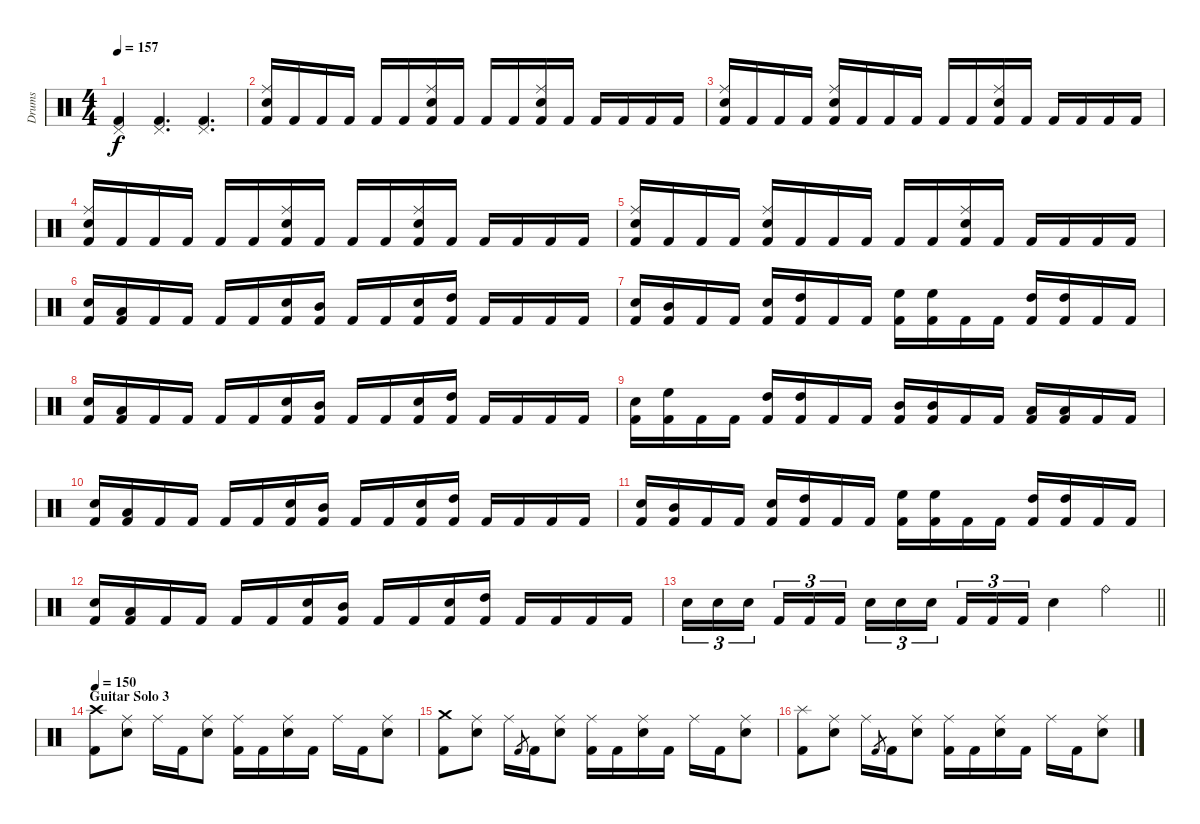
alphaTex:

\track ("Drums" "Drums") {instrument percussion}
\staff {score}
\articulation defaults
\ts (4 4)
\tempo 157
\clef neutral
\ks c
("Pedal Hi-Hat (hit)" "Kick (hit) 2").4{dy f} ("Pedal Hi-Hat (hit)" "Kick (hit) 2").4{d} ("Pedal Hi-Hat (hit)" "Kick (hit) 2").4{d} |
("Ride (middle)" "Electric Snare (hit)" "Kick (hit) 2").16 "Kick (hit) 2".16 "Kick (hit) 2".16 "Kick (hit) 2".16 "Kick (hit) 2".16 "Kick (hit) 2".16 ("Ride (middle)" "Electric Snare (hit)" "Kick (hit) 2").16 "Kick (hit) 2".16 "Kick (hit) 2".16 "Kick (hit) 2".16 ("Ride (middle)" "Electric Snare (hit)" "Kick (hit) 2").16 "Kick (hit) 2".16 "Kick (hit) 2".16 "Kick (hit) 2".16 "Kick (hit) 2".16 "Kick (hit) 2".16 |
("Ride (middle)" "Electric Snare (hit)" "Kick (hit) 2").16 "Kick (hit) 2".16 "Kick (hit) 2".16 "Kick (hit) 2".16 ("Ride (middle)" "Electric Snare (hit)" "Kick (hit) 2").16 "Kick (hit) 2".16 "Kick (hit) 2".16 "Kick (hit) 2".16 "Kick (hit) 2".16 "Kick (hit) 2".16 ("Ride (middle)" "Electric Snare (hit)" "Kick (hit) 2").16 "Kick (hit) 2".16 "Kick (hit) 2".16 "Kick (hit) 2".16 "Kick (hit) 2".16 "Kick (hit) 2".16 |
("Ride (middle)" "Electric Snare (hit)" "Kick (hit) 2").16 "Kick (hit) 2".16 "Kick (hit) 2".16 "Kick (hit) 2".16 "Kick (hit) 2".16 "Kick (hit) 2".16 ("Ride (middle)" "Electric Snare (hit)" "Kick (hit) 2").16 "Kick (hit) 2".16 "Kick (hit) 2".16 "Kick (hit) 2".16 ("Ride (middle)" "Electric Snare (hit)" "Kick (hit) 2").16 "Kick (hit) 2".16 "Kick (hit) 2".16 "Kick (hit) 2".16 "Kick (hit) 2".16 "Kick (hit) 2".16 |
("Ride (middle)" "Electric Snare (hit)" "Kick (hit) 2").16 "Kick (hit) 2".16 "Kick (hit) 2".16 "Kick (hit) 2".16 ("Ride (middle)" "Electric Snare (hit)" "Kick (hit) 2").16 "Kick (hit) 2".16 "Kick (hit) 2".16 "Kick (hit) 2".16 "Kick (hit) 2".16 "Kick (hit) 2".16 ("Ride (middle)" "Electric Snare (hit)" "Kick (hit) 2").16 "Kick (hit) 2".16 "Kick (hit) 2".16 "Kick (hit) 2".16 "Kick (hit) 2".16 "Kick (hit) 2".16 |
("Electric Snare (hit)" "Kick (hit) 2").16 ("Low Tom (hit)" "Kick (hit) 2").16 "Kick (hit) 2".16 "Kick (hit) 2".16 "Kick (hit) 2".16 "Kick (hit) 2".16 ("Electric Snare (hit)" "Kick (hit) 2").16 ("Mid Tom (hit)" "Kick (hit) 2").16 "Kick (hit) 2".16 "Kick (hit) 2".16 ("Electric Snare (hit)" "Kick (hit) 2").16 ("High Tom (hit)" "Kick (hit) 2").16 "Kick (hit) 2".16 "Kick (hit) 2".16 "Kick (hit) 2".16 "Kick (hit) 2".16 |
("Electric Snare (hit)" "Kick (hit) 2").16 ("Mid Tom (hit)" "Kick (hit) 2").16 "Kick (hit) 2".16 "Kick (hit) 2".16 ("Electric Snare (hit)" "Kick (hit) 2").16 ("High Tom (hit)" "Kick (hit) 2").16 "Kick (hit) 2".16 "Kick (hit) 2".16 ("High Floor Tom (hit)" "Kick (hit) 2").16 ("High Floor Tom (hit)" "Kick (hit) 2").16 "Kick (hit) 2".16 "Kick (hit) 2".16 ("High Tom (hit)" "Kick (hit) 2").16 ("High Tom (hit)" "Kick (hit) 2").16 "Kick (hit) 2".16 "Kick (hit) 2".16 |
("Electric Snare (hit)" "Kick (hit) 2").16 ("Low Tom (hit)" "Kick (hit) 2").16 "Kick (hit) 2".16 "Kick (hit) 2".16 "Kick (hit) 2".16 "Kick (hit) 2".16 ("Electric Snare (hit)" "Kick (hit) 2").16 ("Mid Tom (hit)" "Kick (hit) 2").16 "Kick (hit) 2".16 "Kick (hit) 2".16 ("Electric Snare (hit)" "Kick (hit) 2").16 ("High Tom (hit)" "Kick (hit) 2").16 "Kick (hit) 2".16 "Kick (hit) 2".16 "Kick (hit) 2".16 "Kick (hit) 2".16 |
("Electric Snare (hit)" "Kick (hit) 2").16 ("High Floor Tom (hit)" "Kick (hit) 2").16 "Kick (hit) 2".16 "Kick (hit) 2".16 ("High Tom (hit)" "Kick (hit) 2").16 ("High Tom (hit)" "Kick (hit) 2").16 "Kick (hit) 2".16 "Kick (hit) 2".16 ("Mid Tom (hit)" "Kick (hit) 2").16 ("Mid Tom (hit)" "Kick (hit) 2").16 "Kick (hit) 2".16 "Kick (hit) 2".16 ("Low Tom (hit)" "Kick (hit) 2").16 ("Low Tom (hit)" "Kick (hit) 2").16 "Kick (hit) 2".16 "Kick (hit) 2".16 |
("Electric Snare (hit)" "Kick (hit) 2").16 ("Low Tom (hit)" "Kick (hit) 2").16 "Kick (hit) 2".16 "Kick (hit) 2".16 "Kick (hit) 2".16 "Kick (hit) 2".16 ("Electric Snare (hit)" "Kick (hit) 2").16 ("Mid Tom (hit)" "Kick (hit) 2").16 "Kick (hit) 2".16 "Kick (hit) 2".16 ("Electric Snare (hit)" "Kick (hit) 2").16 ("High Tom (hit)" "Kick (hit) 2").16 "Kick (hit) 2".16 "Kick (hit) 2".16 "Kick (hit) 2".16 "Kick (hit) 2".16 |
("Electric Snare (hit)" "Kick (hit) 2").16 ("Mid Tom (hit)" "Kick (hit) 2").16 "Kick (hit) 2".16 "Kick (hit) 2".16 ("Electric Snare (hit)" "Kick (hit) 2").16 ("High Tom (hit)" "Kick (hit) 2").16 "Kick (hit) 2".16 "Kick (hit) 2".16 ("High Floor Tom (hit)" "Kick (hit) 2").16 ("High Floor Tom (hit)" "Kick (hit) 2").16 "Kick (hit) 2".16 "Kick (hit) 2".16 ("High Tom (hit)" "Kick (hit) 2").16 ("High Tom (hit)" "Kick (hit) 2").16 "Kick (hit) 2".16 "Kick (hit) 2".16 |
("Electric Snare (hit)" "Kick (hit) 2").16 ("Low Tom (hit)" "Kick (hit) 2").16 "Kick (hit) 2".16 "Kick (hit) 2".16 "Kick (hit) 2".16 "Kick (hit) 2".16 ("Electric Snare (hit)" "Kick (hit) 2").16 ("Mid Tom (hit)" "Kick (hit) 2").16 "Kick (hit) 2".16 "Kick (hit) 2".16 ("Electric Snare (hit)" "Kick (hit) 2").16 ("High Tom (hit)" "Kick (hit) 2").16 "Kick (hit) 2".16 "Kick (hit) 2".16 "Kick (hit) 2".16 "Kick (hit) 2".16 |
\barLineRight lightlight "Electric Snare (hit)".16{tu (3 2)} "Electric Snare (hit)".16{tu (3 2)} "Electric Snare (hit)".16{tu (3 2) beam splitsecondary} "Kick (hit) 2".16{tu (3 2)} "Kick (hit) 2".16{tu (3 2)} "Kick (hit) 2".16{tu (3 2)} "Electric Snare (hit)".16{tu (3 2)} "Electric Snare (hit)".16{tu (3 2)} "Electric Snare (hit)".16{tu (3 2) beam splitsecondary} "Kick (hit) 2".16{tu (3 2)} "Kick (hit) 2".16{tu (3 2)} "Kick (hit) 2".16{tu (3 2)} "Electric Snare (hit)".4 "Ride (bell)".4
|
\section ("" "Guitar Solo 3")
\tempo 150
("Crash high (hit)" "Kick (hit) 2").8 ("Ride (middle)" "Electric Snare (hit)").8 "Ride (middle)".16 "Kick (hit) 2".16 ("Ride (middle)" "Electric Snare (hit)").8 ("Ride (middle)" "Kick (hit) 2").16 "Kick (hit) 2".16 ("Ride (middle)" "Electric Snare (hit)").16 "Kick (hit) 2".16 "Ride (middle)".16 "Kick (hit) 2".16 ("Ride (middle)" "Electric Snare (hit)").8 |
("Crash medium (hit)" "Kick (hit) 2").8 ("Ride (middle)" "Electric Snare (hit)").8 "Ride (middle)".16 "Kick (hit) 2".8{gr} "Kick (hit) 2".16 ("Ride (middle)" "Electric Snare (hit)").8 ("Ride (middle)" "Kick (hit) 2").16 "Kick (hit) 2".16 ("Ride (middle)" "Electric Snare (hit)").16 "Kick (hit) 2".16 "Ride (middle)".16 "Kick (hit) 2".16 ("Ride (middle)" "Electric Snare (hit)").8 |
("Splash (hit)" "Kick (hit) 2").8 ("Ride (middle)" "Electric Snare (hit)").8 "Ride (middle)".16 "Kick (hit) 2".8{gr} "Kick (hit) 2".16 ("Ride (middle)" "Electric Snare (hit)").8 ("Ride (middle)" "Kick (hit) 2").16 "Kick (hit) 2".16 ("Ride (middle)" "Electric Snare (hit)").16 "Kick (hit) 2".16 "Ride (middle)".16 "Kick (hit) 2".16 ("Ride (middle)" "Electric Snare (hit)").8
